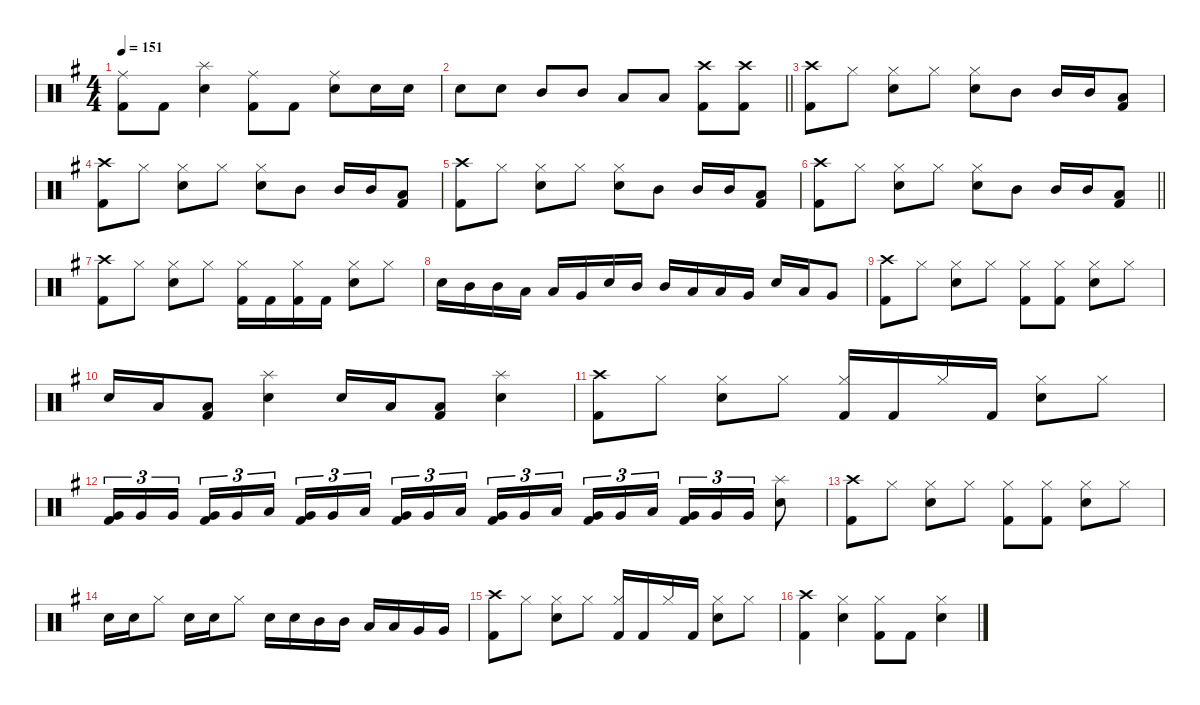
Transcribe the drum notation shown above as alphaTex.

\defaultSystemsLayout 4
\hideDynamics
\bracketExtendMode nobrackets
\singleTrackTrackNamePolicy hidden
\multiTrackTrackNamePolicy hidden
\otherSystemsTrackNameOrientation horizontal
\track ("Lars Ulrich" "drm.") {instrument percussion}
\staff {score}
\articulation defaults
\ts (4 4)
\tempo 151
\clef neutral
\ks eminor
("Ride (middle)"{acc forcenatural} "Kick (hit) 2"{acc forcenatural}).8{dy f beam Down} "Kick (hit) 2"{acc forcenatural}.8{beam Down} ("Splash (hit)"{acc forcenatural} "Snare (hit) 2"{acc forcenatural}).4{beam Down} ("Ride (middle)"{acc forcenatural} "Kick (hit) 2"{acc forcenatural}).8{beam Down} "Kick (hit) 2"{acc forcenatural}.8{beam Down} ("Ride (middle)"{acc forcenatural} "Snare (hit) 2"{acc forcenatural}).8{beam Down} "Snare (hit) 2"{acc forcenatural}.16{beam Down} "Snare (hit) 2"{acc forcenatural}.16{beam Down} |
\barLineRight lightlight "Snare (hit) 2"{acc forcenatural}.8{beam Down} "Snare (hit) 2"{acc forcenatural}.8{beam Down} "Mid Tom (hit)"{acc forcenatural}.8{beam Up} "Mid Tom (hit)"{acc forcenatural}.8{beam Up} "Low Tom (hit)"{acc forcenatural}.8{beam Up} "Low Tom (hit)"{acc forcenatural}.8{beam Up}
("Crash high (hit)"{acc forcenatural} "Kick (hit) 2"{acc forcenatural}).8{beam Down} ("Crash high (hit)"{acc forcenatural} "Kick (hit) 2"{acc forcenatural}).8{beam Down} |
("Crash high (hit)"{acc forcenatural} "Kick (hit) 2"{acc forcenatural}).8{beam Down} "Hi-Hat (closed)"{acc forcenatural}.8{beam Down} ("Hi-Hat (closed)"{acc forcenatural} "Snare (hit) 2"{acc forcenatural}).8{beam Down} "Hi-Hat (closed)"{acc forcenatural}.8{beam Down} ("Hi-Hat (closed)"{acc forcenatural} "Snare (hit) 2"{acc forcenatural}).8{beam Down} "Mid Tom (hit)"{acc forcenatural}.8{beam Down} "Mid Tom (hit)"{acc forcenatural}.16{beam Up} "Mid Tom (hit)"{acc forcenatural}.16{beam Up} ("Low Tom (hit)"{acc forcenatural} "Kick (hit) 2"{acc forcenatural}).8{beam Up} |
("Crash high (hit)"{acc forcenatural} "Kick (hit) 2"{acc forcenatural}).8{beam Down} "Hi-Hat (closed)"{acc forcenatural}.8{beam Down} ("Hi-Hat (closed)"{acc forcenatural} "Snare (hit) 2"{acc forcenatural}).8{beam Down} "Hi-Hat (closed)"{acc forcenatural}.8{beam Down} ("Hi-Hat (closed)"{acc forcenatural} "Snare (hit) 2"{acc forcenatural}).8{beam Down} "Mid Tom (hit)"{acc forcenatural}.8{beam Down} "Mid Tom (hit)"{acc forcenatural}.16{beam Up} "Mid Tom (hit)"{acc forcenatural}.16{beam Up} ("Low Tom (hit)"{acc forcenatural} "Kick (hit) 2"{acc forcenatural}).8{beam Up} |
("Crash high (hit)"{acc forcenatural} "Kick (hit) 2"{acc forcenatural}).8{beam Down} "Hi-Hat (closed)"{acc forcenatural}.8{beam Down} ("Hi-Hat (closed)"{acc forcenatural} "Snare (hit) 2"{acc forcenatural}).8{beam Down} "Hi-Hat (closed)"{acc forcenatural}.8{beam Down} ("Hi-Hat (closed)"{acc forcenatural} "Snare (hit) 2"{acc forcenatural}).8{beam Down} "Mid Tom (hit)"{acc forcenatural}.8{beam Down} "Mid Tom (hit)"{acc forcenatural}.16{beam Up} "Mid Tom (hit)"{acc forcenatural}.16{beam Up} ("Low Tom (hit)"{acc forcenatural} "Kick (hit) 2"{acc forcenatural}).8{beam Up} |
\barLineRight lightlight
("Crash high (hit)"{acc forcenatural} "Kick (hit) 2"{acc forcenatural}).8{beam Down} "Hi-Hat (closed)"{acc forcenatural}.8{beam Down} ("Hi-Hat (closed)"{acc forcenatural} "Snare (hit) 2"{acc forcenatural}).8{beam Down} "Hi-Hat (closed)"{acc forcenatural}.8{beam Down} ("Hi-Hat (closed)"{acc forcenatural} "Snare (hit) 2"{acc forcenatural}).8{beam Down} "Mid Tom (hit)"{acc forcenatural}.8{beam Down} "Mid Tom (hit)"{acc forcenatural}.16{beam Up} "Mid Tom (hit)"{acc forcenatural}.16{beam Up} ("Low Tom (hit)"{acc forcenatural} "Kick (hit) 2"{acc forcenatural}).8{beam Up} |
("Crash high (hit)"{acc forcenatural} "Kick (hit) 2"{acc forcenatural}).8{beam Down} "Hi-Hat (closed)"{acc forcenatural}.8{beam Down} ("Hi-Hat (closed)"{acc forcenatural} "Snare (hit) 2"{acc forcenatural}).8{beam Down} "Hi-Hat (closed)"{acc forcenatural}.8{beam Down} ("Hi-Hat (closed)"{acc forcenatural} "Kick (hit) 2"{acc forcenatural}).16{beam Down} "Kick (hit) 2"{acc forcenatural}.16{beam Down} ("Hi-Hat (closed)"{acc forcenatural} "Kick (hit) 2"{acc forcenatural}).16{beam Down} "Kick (hit) 2"{acc forcenatural}.16{beam Down} ("Hi-Hat (closed)"{acc forcenatural} "Snare (hit) 2"{acc forcenatural}).8{beam Down} "Hi-Hat (closed)"{acc forcenatural}.8{beam Down} |
"Snare (hit) 2"{acc forcenatural}.16{beam Down} "Mid Tom (hit)"{acc forcenatural}.16{beam Down} "Mid Tom (hit)"{acc forcenatural}.16{beam Down} "Low Tom (hit)"{acc forcenatural}.16{beam Down} "Low Tom (hit)"{acc forcenatural}.16{beam Up} "Very Low Tom (hit)"{acc forcenatural}.16{beam Up} "Snare (hit) 2"{acc forcenatural}.16{beam Up} "Mid Tom (hit)"{acc forcenatural}.16{beam Up} "Mid Tom (hit)"{acc forcenatural}.16{beam Up} "Low Tom (hit)"{acc forcenatural}.16{beam Up} "Low Tom (hit)"{acc forcenatural}.16{beam Up} "Very Low Tom (hit)"{acc forcenatural}.16{beam Up} "Snare (hit) 2"{acc forcenatural}.16{beam Up} "Low Tom (hit)"{acc forcenatural}.16{beam Up} "Very Low Tom (hit)"{acc forcenatural}.8{beam Up} |
("Crash high (hit)"{acc forcenatural} "Kick (hit) 2"{acc forcenatural}).8{beam Down} "Hi-Hat (closed)"{acc forcenatural}.8{beam Down} ("Hi-Hat (closed)"{acc forcenatural} "Snare (hit) 2"{acc forcenatural}).8{beam Down} "Hi-Hat (closed)"{acc forcenatural}.8{beam Down} ("Hi-Hat (closed)"{acc forcenatural} "Kick (hit) 2"{acc forcenatural}).8{beam Down} ("Hi-Hat (closed)"{acc forcenatural} "Kick (hit) 2"{acc forcenatural}).8{beam Down} ("Hi-Hat (closed)"{acc forcenatural} "Snare (hit) 2"{acc forcenatural}).8{beam Down} "Hi-Hat (closed)"{acc forcenatural}.8{beam Down} |
"Snare (hit) 2"{acc forcenatural}.16{beam Up} "Low Tom (hit)"{acc forcenatural}.16{beam Up} ("Low Tom (hit)"{acc forcenatural} "Kick (hit) 2"{acc forcenatural}).8{beam Up} ("Splash (hit)"{acc forcenatural} "Snare (hit) 2"{acc forcenatural}).4{beam Down} "Snare (hit) 2"{acc forcenatural}.16{beam Up} "Low Tom (hit)"{acc forcenatural}.16{beam Up} ("Low Tom (hit)"{acc forcenatural} "Kick (hit) 2"{acc forcenatural}).8{beam Up} ("Splash (hit)"{acc forcenatural} "Snare (hit) 2"{acc forcenatural}).4{beam Down} |
("Crash high (hit)"{acc forcenatural} "Kick (hit) 2"{acc forcenatural}).8{beam Down} "Hi-Hat (closed)"{acc forcenatural}.8{beam Down} ("Hi-Hat (closed)"{acc forcenatural} "Snare (hit) 2"{acc forcenatural}).8{beam Down} "Hi-Hat (closed)"{acc forcenatural}.8{beam Down} ("Hi-Hat (closed)"{acc forcenatural} "Kick (hit) 2"{acc forcenatural}).16{beam Up} "Kick (hit) 2"{acc forcenatural}.16{beam Up} "Hi-Hat (closed)"{acc forcenatural}.16{beam Up} "Kick (hit) 2"{acc forcenatural}.16{beam Up} ("Hi-Hat (closed)"{acc forcenatural} "Snare (hit) 2"{acc forcenatural}).8{beam Down} "Hi-Hat (closed)"{acc forcenatural}.8{beam Down} |
("Very Low Tom (hit)"{acc forcenatural} "Kick (hit) 2"{acc forcenatural}).16{tu (3 2) beam Up} "Very Low Tom (hit)"{acc forcenatural}.16{tu (3 2) beam Up} "Very Low Tom (hit)"{acc forcenatural}.16{tu (3 2) beam Up} ("Very Low Tom (hit)"{acc forcenatural} "Kick (hit) 2"{acc forcenatural}).16{tu (3 2) beam Up} "Very Low Tom (hit)"{acc forcenatural}.16{tu (3 2) beam Up} "Low Floor Tom (hit)"{acc forcenatural}.16{tu (3 2) beam Up} ("Very Low Tom (hit)"{acc forcenatural} "Kick (hit) 2"{acc forcenatural}).16{tu (3 2) beam Up} "Very Low Tom (hit)"{acc forcenatural}.16{tu (3 2) beam Up} "Low Floor Tom (hit)"{acc forcenatural}.16{tu (3 2) beam Up} ("Very Low Tom (hit)"{acc forcenatural} "Kick (hit) 2"{acc forcenatural}).16{tu (3 2) beam Up} "Very Low Tom (hit)"{acc forcenatural}.16{tu (3 2) beam Up} "Low Floor Tom (hit)"{acc forcenatural}.16{tu (3 2) beam Up} ("Very Low Tom (hit)"{acc forcenatural} "Kick (hit) 2"{acc forcenatural}).16{tu (3 2) beam Up} "Very Low Tom (hit)"{acc forcenatural}.16{tu (3 2) beam Up} "Low Floor Tom (hit)"{acc forcenatural}.16{tu (3 2) beam Up} ("Very Low Tom (hit)"{acc forcenatural} "Kick (hit) 2"{acc forcenatural}).16{tu (3 2) beam Up} "Very Low Tom (hit)"{acc forcenatural}.16{tu (3 2) beam Up} "Low Floor Tom (hit)"{acc forcenatural}.16{tu (3 2) beam Up} ("Very Low Tom (hit)"{acc forcenatural} "Kick (hit) 2"{acc forcenatural}).16{tu (3 2) beam Up} "Very Low Tom (hit)"{acc forcenatural}.16{tu (3 2) beam Up} "Very Low Tom (hit)"{acc forcenatural}.16{tu (3 2) beam Up} ("Splash (hit)"{acc forcenatural} "Snare (hit) 2"{acc forcenatural}).8{beam Down} |
("Crash high (hit)"{acc forcenatural} "Kick (hit) 2"{acc forcenatural}).8{beam Down} "Hi-Hat (closed)"{acc forcenatural}.8{beam Down} ("Hi-Hat (closed)"{acc forcenatural} "Snare (hit) 2"{acc forcenatural}).8{beam Down} "Hi-Hat (closed)"{acc forcenatural}.8{beam Down} ("Hi-Hat (closed)"{acc forcenatural} "Kick (hit) 2"{acc forcenatural}).8{beam Down} ("Hi-Hat (closed)"{acc forcenatural} "Kick (hit) 2"{acc forcenatural}).8{beam Down} ("Hi-Hat (closed)"{acc forcenatural} "Snare (hit) 2"{acc forcenatural}).8{beam Down} "Hi-Hat (closed)"{acc forcenatural}.8{beam Down} |
"Snare (hit) 2"{acc forcenatural}.16{beam Down} "Snare (hit) 2"{acc forcenatural}.16{beam Down} "Hi-Hat (closed)"{acc forcenatural}.8{beam Down} "Snare (hit) 2"{acc forcenatural}.16{beam Down} "Snare (hit) 2"{acc forcenatural}.16{beam Down} "Hi-Hat (closed)"{acc forcenatural}.8{beam Down} "Snare (hit) 2"{acc forcenatural}.16{beam Down} "Snare (hit) 2"{acc forcenatural}.16{beam Down} "Mid Tom (hit)"{acc forcenatural}.16{beam Down} "Mid Tom (hit)"{acc forcenatural}.16{beam Down} "Low Tom (hit)"{acc forcenatural}.16{beam Up} "Low Tom (hit)"{acc forcenatural}.16{beam Up} "Very Low Tom (hit)"{acc forcenatural}.16{beam Up} "Very Low Tom (hit)"{acc forcenatural}.16{beam Up} |
("Crash high (hit)"{acc forcenatural} "Kick (hit) 2"{acc forcenatural}).8{beam Down} "Hi-Hat (closed)"{acc forcenatural}.8{beam Down} ("Hi-Hat (closed)"{acc forcenatural} "Snare (hit) 2"{acc forcenatural}).8{beam Down} "Hi-Hat (closed)"{acc forcenatural}.8{beam Down} ("Hi-Hat (closed)"{acc forcenatural} "Kick (hit) 2"{acc forcenatural}).16{beam Up} "Kick (hit) 2"{acc forcenatural}.16{beam Up} "Hi-Hat (closed)"{acc forcenatural}.16{beam Up} "Kick (hit) 2"{acc forcenatural}.16{beam Up} ("Hi-Hat (closed)"{acc forcenatural} "Snare (hit) 2"{acc forcenatural}).8{beam Down} "Hi-Hat (closed)"{acc forcenatural}.8{beam Down} |
("Crash high (hit)"{acc forcenatural} "Kick (hit) 2"{acc forcenatural}).4{beam Down} ("Hi-Hat (closed)"{acc forcenatural} "Snare (hit) 2"{acc forcenatural}).4{beam Down} ("Hi-Hat (closed)"{acc forcenatural} "Kick (hit) 2"{acc forcenatural}).8{beam Down} "Kick (hit) 2"{acc forcenatural}.8{beam Down} ("Hi-Hat (closed)"{acc forcenatural} "Snare (hit) 2"{acc forcenatural}).4{beam Down}
